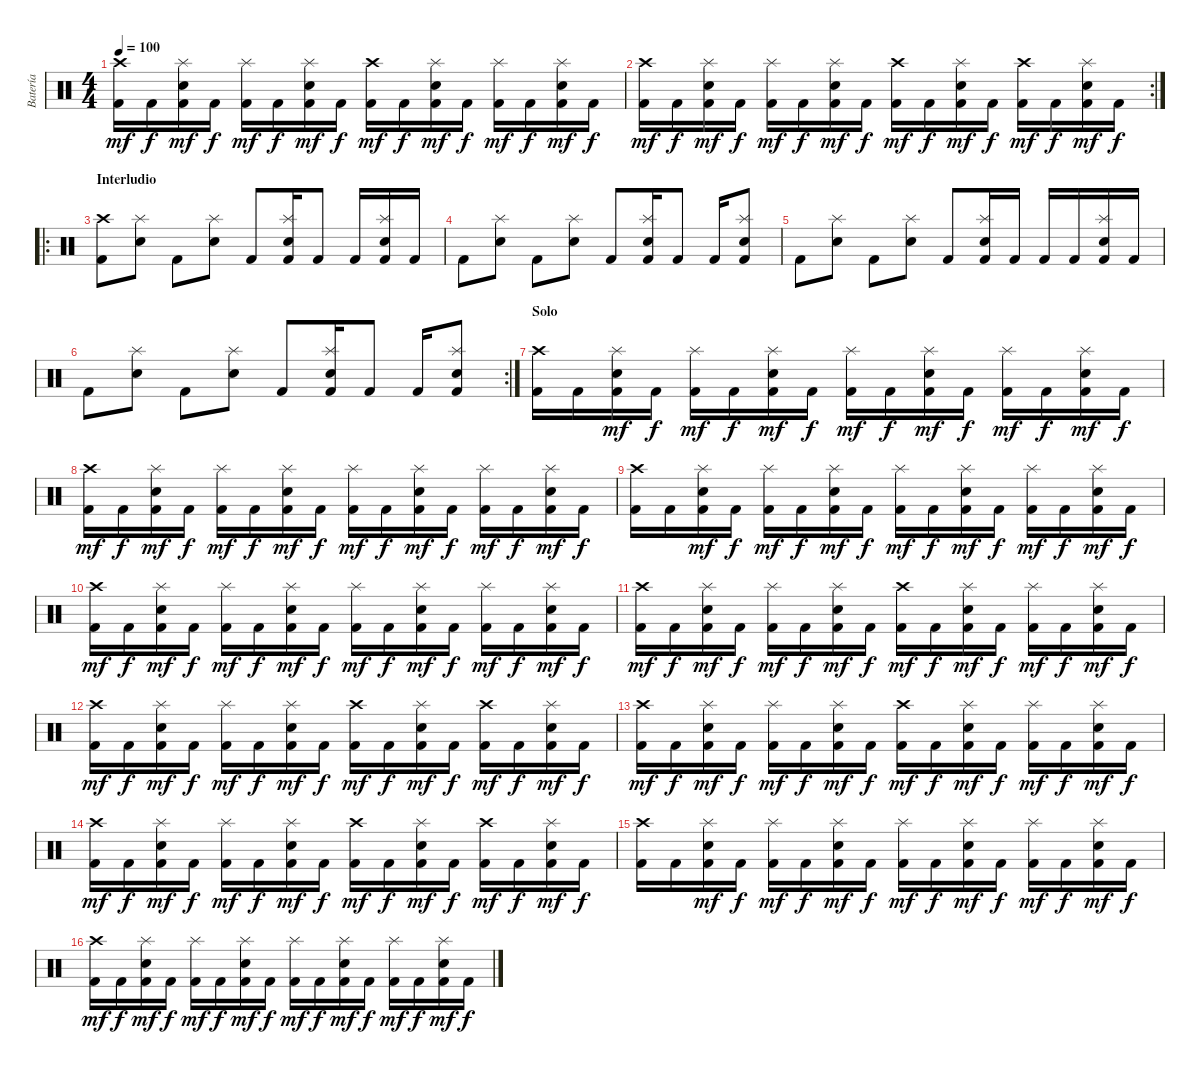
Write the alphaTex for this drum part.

\track ("Batería" "Batería") {instrument percussion}
\staff {score}
\articulation defaults
\ts (4 4)
\tempo 100
\clef neutral
\ks c
("Crash high (hit)" "Kick (hit) 2").16{dy mf} "Kick (hit) 2".16{dy f} ("Splash (hit)" "Snare (hit) 2" "Kick (hit) 2").16{dy mf} "Kick (hit) 2".16{dy f} ("Splash (hit)" "Kick (hit) 2").16{dy mf} "Kick (hit) 2".16{dy f} ("Splash (hit)" "Snare (hit) 2" "Kick (hit) 2").16{dy mf} "Kick (hit) 2".16{dy f} ("Crash high (hit)" "Kick (hit) 2").16{dy mf} "Kick (hit) 2".16{dy f} ("Splash (hit)" "Snare (hit) 2" "Kick (hit) 2").16{dy mf} "Kick (hit) 2".16{dy f} ("Splash (hit)" "Kick (hit) 2").16{dy mf} "Kick (hit) 2".16{dy f} ("Splash (hit)" "Snare (hit) 2" "Kick (hit) 2").16{dy mf} "Kick (hit) 2".16{dy f} |
\rc 2
("Crash high (hit)" "Kick (hit) 2").16{dy mf} "Kick (hit) 2".16{dy f} ("Splash (hit)" "Snare (hit) 2" "Kick (hit) 2").16{dy mf} "Kick (hit) 2".16{dy f} ("Splash (hit)" "Kick (hit) 2").16{dy mf} "Kick (hit) 2".16{dy f} ("Splash (hit)" "Snare (hit) 2" "Kick (hit) 2").16{dy mf} "Kick (hit) 2".16{dy f} ("Crash high (hit)" "Kick (hit) 2").16{dy mf} "Kick (hit) 2".16{dy f} ("Splash (hit)" "Snare (hit) 2" "Kick (hit) 2").16{dy mf} "Kick (hit) 2".16{dy f} ("Crash high (hit)" "Kick (hit) 2").16{dy mf} "Kick (hit) 2".16{dy f} ("Splash (hit)" "Snare (hit) 2" "Kick (hit) 2").16{dy mf} "Kick (hit) 2".16{dy f} |
\ro
\section ("" "Interludio")
("Crash high (hit)" "Kick (hit) 2").8 ("Splash (hit)" "Snare (hit) 2").8 "Kick (hit) 2".8 ("Splash (hit)" "Snare (hit) 2").8 "Kick (hit) 2".8 ("Splash (hit)" "Snare (hit) 2" "Kick (hit) 2").16 "Kick (hit) 2".8 "Kick (hit) 2".16 ("Splash (hit)" "Snare (hit) 2" "Kick (hit) 2").16 "Kick (hit) 2".16 |
"Kick (hit) 2".8 ("Splash (hit)" "Snare (hit) 2").8 "Kick (hit) 2".8 ("Splash (hit)" "Snare (hit) 2").8 "Kick (hit) 2".8 ("Splash (hit)" "Snare (hit) 2" "Kick (hit) 2").16 "Kick (hit) 2".8 "Kick (hit) 2".16 ("Splash (hit)" "Snare (hit) 2" "Kick (hit) 2").8 |
"Kick (hit) 2".8 ("Splash (hit)" "Snare (hit) 2").8 "Kick (hit) 2".8 ("Splash (hit)" "Snare (hit) 2").8 "Kick (hit) 2".8 ("Splash (hit)" "Snare (hit) 2" "Kick (hit) 2").16 "Kick (hit) 2".16 "Kick (hit) 2".16 "Kick (hit) 2".16 ("Splash (hit)" "Snare (hit) 2" "Kick (hit) 2").16 "Kick (hit) 2".16 |
\rc 2 "Kick (hit) 2".8
("Splash (hit)" "Snare (hit) 2").8 "Kick (hit) 2".8 ("Splash (hit)" "Snare (hit) 2").8 "Kick (hit) 2".8 ("Splash (hit)" "Snare (hit) 2" "Kick (hit) 2").16 "Kick (hit) 2".8 "Kick (hit) 2".16 ("Splash (hit)" "Snare (hit) 2" "Kick (hit) 2").8 |
\section ("" "Solo")
("Crash high (hit)" "Kick (hit) 2").16 "Kick (hit) 2".16 ("Splash (hit)" "Snare (hit) 2" "Kick (hit) 2").16{dy mf} "Kick (hit) 2".16{dy f} ("Splash (hit)" "Kick (hit) 2").16{dy mf} "Kick (hit) 2".16{dy f} ("Splash (hit)" "Snare (hit) 2" "Kick (hit) 2").16{dy mf} "Kick (hit) 2".16{dy f} ("Splash (hit)" "Kick (hit) 2").16{dy mf} "Kick (hit) 2".16{dy f} ("Splash (hit)" "Snare (hit) 2" "Kick (hit) 2").16{dy mf} "Kick (hit) 2".16{dy f} ("Splash (hit)" "Kick (hit) 2").16{dy mf} "Kick (hit) 2".16{dy f} ("Splash (hit)" "Snare (hit) 2" "Kick (hit) 2").16{dy mf} "Kick (hit) 2".16{dy f} |
("Crash high (hit)" "Kick (hit) 2").16{dy mf} "Kick (hit) 2".16{dy f} ("Splash (hit)" "Snare (hit) 2" "Kick (hit) 2").16{dy mf} "Kick (hit) 2".16{dy f} ("Splash (hit)" "Kick (hit) 2").16{dy mf} "Kick (hit) 2".16{dy f} ("Splash (hit)" "Snare (hit) 2" "Kick (hit) 2").16{dy mf} "Kick (hit) 2".16{dy f} ("Splash (hit)" "Kick (hit) 2").16{dy mf} "Kick (hit) 2".16{dy f} ("Splash (hit)" "Snare (hit) 2" "Kick (hit) 2").16{dy mf} "Kick (hit) 2".16{dy f} ("Splash (hit)" "Kick (hit) 2").16{dy mf} "Kick (hit) 2".16{dy f} ("Splash (hit)" "Snare (hit) 2" "Kick (hit) 2").16{dy mf} "Kick (hit) 2".16{dy f} |
("Crash high (hit)" "Kick (hit) 2").16 "Kick (hit) 2".16 ("Splash (hit)" "Snare (hit) 2" "Kick (hit) 2").16{dy mf} "Kick (hit) 2".16{dy f} ("Splash (hit)" "Kick (hit) 2").16{dy mf} "Kick (hit) 2".16{dy f} ("Splash (hit)" "Snare (hit) 2" "Kick (hit) 2").16{dy mf} "Kick (hit) 2".16{dy f} ("Splash (hit)" "Kick (hit) 2").16{dy mf} "Kick (hit) 2".16{dy f} ("Splash (hit)" "Snare (hit) 2" "Kick (hit) 2").16{dy mf} "Kick (hit) 2".16{dy f} ("Splash (hit)" "Kick (hit) 2").16{dy mf} "Kick (hit) 2".16{dy f} ("Splash (hit)" "Snare (hit) 2" "Kick (hit) 2").16{dy mf} "Kick (hit) 2".16{dy f} |
("Crash high (hit)" "Kick (hit) 2").16{dy mf} "Kick (hit) 2".16{dy f} ("Splash (hit)" "Snare (hit) 2" "Kick (hit) 2").16{dy mf} "Kick (hit) 2".16{dy f} ("Splash (hit)" "Kick (hit) 2").16{dy mf} "Kick (hit) 2".16{dy f} ("Splash (hit)" "Snare (hit) 2" "Kick (hit) 2").16{dy mf} "Kick (hit) 2".16{dy f} ("Splash (hit)" "Kick (hit) 2").16{dy mf} "Kick (hit) 2".16{dy f} ("Splash (hit)" "Snare (hit) 2" "Kick (hit) 2").16{dy mf} "Kick (hit) 2".16{dy f} ("Splash (hit)" "Kick (hit) 2").16{dy mf} "Kick (hit) 2".16{dy f} ("Splash (hit)" "Snare (hit) 2" "Kick (hit) 2").16{dy mf} "Kick (hit) 2".16{dy f} |
("Crash high (hit)" "Kick (hit) 2").16{dy mf} "Kick (hit) 2".16{dy f} ("Splash (hit)" "Snare (hit) 2" "Kick (hit) 2").16{dy mf} "Kick (hit) 2".16{dy f} ("Splash (hit)" "Kick (hit) 2").16{dy mf} "Kick (hit) 2".16{dy f} ("Splash (hit)" "Snare (hit) 2" "Kick (hit) 2").16{dy mf} "Kick (hit) 2".16{dy f} ("Crash high (hit)" "Kick (hit) 2").16{dy mf} "Kick (hit) 2".16{dy f} ("Splash (hit)" "Snare (hit) 2" "Kick (hit) 2").16{dy mf} "Kick (hit) 2".16{dy f} ("Splash (hit)" "Kick (hit) 2").16{dy mf} "Kick (hit) 2".16{dy f} ("Splash (hit)" "Snare (hit) 2" "Kick (hit) 2").16{dy mf} "Kick (hit) 2".16{dy f} |
("Crash high (hit)" "Kick (hit) 2").16{dy mf} "Kick (hit) 2".16{dy f} ("Splash (hit)" "Snare (hit) 2" "Kick (hit) 2").16{dy mf} "Kick (hit) 2".16{dy f} ("Splash (hit)" "Kick (hit) 2").16{dy mf} "Kick (hit) 2".16{dy f} ("Splash (hit)" "Snare (hit) 2" "Kick (hit) 2").16{dy mf} "Kick (hit) 2".16{dy f} ("Crash high (hit)" "Kick (hit) 2").16{dy mf} "Kick (hit) 2".16{dy f} ("Splash (hit)" "Snare (hit) 2" "Kick (hit) 2").16{dy mf} "Kick (hit) 2".16{dy f} ("Crash high (hit)" "Kick (hit) 2").16{dy mf} "Kick (hit) 2".16{dy f} ("Splash (hit)" "Snare (hit) 2" "Kick (hit) 2").16{dy mf} "Kick (hit) 2".16{dy f} |
("Crash high (hit)" "Kick (hit) 2").16{dy mf} "Kick (hit) 2".16{dy f} ("Splash (hit)" "Snare (hit) 2" "Kick (hit) 2").16{dy mf} "Kick (hit) 2".16{dy f} ("Splash (hit)" "Kick (hit) 2").16{dy mf} "Kick (hit) 2".16{dy f} ("Splash (hit)" "Snare (hit) 2" "Kick (hit) 2").16{dy mf} "Kick (hit) 2".16{dy f} ("Crash high (hit)" "Kick (hit) 2").16{dy mf} "Kick (hit) 2".16{dy f} ("Splash (hit)" "Snare (hit) 2" "Kick (hit) 2").16{dy mf} "Kick (hit) 2".16{dy f} ("Splash (hit)" "Kick (hit) 2").16{dy mf} "Kick (hit) 2".16{dy f} ("Splash (hit)" "Snare (hit) 2" "Kick (hit) 2").16{dy mf} "Kick (hit) 2".16{dy f} |
("Crash high (hit)" "Kick (hit) 2").16{dy mf} "Kick (hit) 2".16{dy f} ("Splash (hit)" "Snare (hit) 2" "Kick (hit) 2").16{dy mf} "Kick (hit) 2".16{dy f} ("Splash (hit)" "Kick (hit) 2").16{dy mf} "Kick (hit) 2".16{dy f} ("Splash (hit)" "Snare (hit) 2" "Kick (hit) 2").16{dy mf} "Kick (hit) 2".16{dy f} ("Crash high (hit)" "Kick (hit) 2").16{dy mf} "Kick (hit) 2".16{dy f} ("Splash (hit)" "Snare (hit) 2" "Kick (hit) 2").16{dy mf} "Kick (hit) 2".16{dy f} ("Crash high (hit)" "Kick (hit) 2").16{dy mf} "Kick (hit) 2".16{dy f} ("Splash (hit)" "Snare (hit) 2" "Kick (hit) 2").16{dy mf} "Kick (hit) 2".16{dy f} |
("Crash high (hit)" "Kick (hit) 2").16 "Kick (hit) 2".16 ("Splash (hit)" "Snare (hit) 2" "Kick (hit) 2").16{dy mf} "Kick (hit) 2".16{dy f} ("Splash (hit)" "Kick (hit) 2").16{dy mf} "Kick (hit) 2".16{dy f} ("Splash (hit)" "Snare (hit) 2" "Kick (hit) 2").16{dy mf} "Kick (hit) 2".16{dy f} ("Splash (hit)" "Kick (hit) 2").16{dy mf} "Kick (hit) 2".16{dy f} ("Splash (hit)" "Snare (hit) 2" "Kick (hit) 2").16{dy mf} "Kick (hit) 2".16{dy f} ("Splash (hit)" "Kick (hit) 2").16{dy mf} "Kick (hit) 2".16{dy f} ("Splash (hit)" "Snare (hit) 2" "Kick (hit) 2").16{dy mf} "Kick (hit) 2".16{dy f} |
("Crash high (hit)" "Kick (hit) 2").16{dy mf} "Kick (hit) 2".16{dy f} ("Splash (hit)" "Snare (hit) 2" "Kick (hit) 2").16{dy mf} "Kick (hit) 2".16{dy f} ("Splash (hit)" "Kick (hit) 2").16{dy mf} "Kick (hit) 2".16{dy f} ("Splash (hit)" "Snare (hit) 2" "Kick (hit) 2").16{dy mf} "Kick (hit) 2".16{dy f} ("Splash (hit)" "Kick (hit) 2").16{dy mf} "Kick (hit) 2".16{dy f} ("Splash (hit)" "Snare (hit) 2" "Kick (hit) 2").16{dy mf} "Kick (hit) 2".16{dy f} ("Splash (hit)" "Kick (hit) 2").16{dy mf} "Kick (hit) 2".16{dy f} ("Splash (hit)" "Snare (hit) 2" "Kick (hit) 2").16{dy mf} "Kick (hit) 2".16{dy f}
